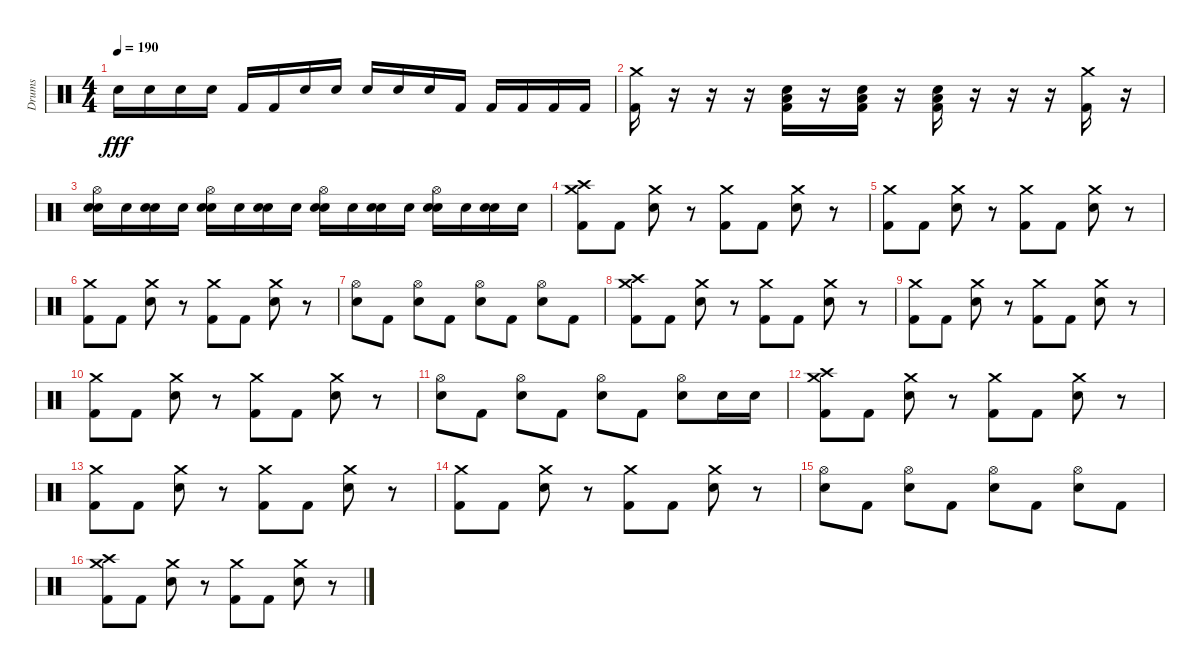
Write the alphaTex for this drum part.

\track ("Drums" "Drums") {instrument percussion}
\staff {score}
\articulation defaults
\ts (4 4)
\tempo 190
\clef neutral
\ks c "Electric Snare (hit)".16{dy fff} "Electric Snare (hit)".16 "Electric Snare (hit)".16 "Electric Snare (hit)".16 "Kick (hit) 2".16 "Kick (hit) 2".16 "Electric Snare (hit)".16 "Electric Snare (hit)".16 "Electric Snare (hit)".16 "Electric Snare (hit)".16 "Electric Snare (hit)".16 "Kick (hit) 2".16 "Kick (hit) 2".16 "Kick (hit) 2".16 "Kick (hit) 2".16 "Kick (hit) 2".16
|
("Crash medium (hit)" "Kick (hit) 2").16 r.16 r.16 r.16 ("Electric Snare (hit)" "Low Floor Tom (hit)" "Kick (hit) 2").16 r.16 ("Electric Snare (hit)" "Low Floor Tom (hit)" "Kick (hit) 2").16 r.16 ("Electric Snare (hit)" "Low Floor Tom (hit)" "Kick (hit) 2").16 r.16 r.16 r.16 ("Crash medium (hit)" "Kick (hit) 2").16 r.16 |
("Hi-Hat (open)" "Snare (hit) 2" "Snare (hit) 2").16 "Snare (hit) 2".16 ("Snare (hit) 2" "Snare (hit) 2").16 "Snare (hit) 2".16 ("Hi-Hat (open)" "Snare (hit) 2" "Snare (hit) 2").16 "Snare (hit) 2".16 ("Snare (hit) 2" "Snare (hit) 2").16 "Snare (hit) 2".16 ("Hi-Hat (open)" "Snare (hit) 2" "Snare (hit) 2").16 "Snare (hit) 2".16 ("Snare (hit) 2" "Snare (hit) 2").16 "Snare (hit) 2".16 ("Hi-Hat (open)" "Snare (hit) 2" "Snare (hit) 2").16 "Snare (hit) 2".16 ("Snare (hit) 2" "Snare (hit) 2").16 "Snare (hit) 2".16 |
("Crash high (hit)" "Crash medium (hit)" "Kick (hit) 2").8 "Kick (hit) 2".8 ("Crash medium (hit)" "Snare (hit) 2").8 r.8 ("Crash medium (hit)" "Kick (hit) 2").8 "Kick (hit) 2".8 ("Crash medium (hit)" "Snare (hit) 2").8 r.8 |
("Crash medium (hit)" "Kick (hit) 2").8 "Kick (hit) 2".8 ("Crash medium (hit)" "Snare (hit) 2").8 r.8 ("Crash medium (hit)" "Kick (hit) 2").8 "Kick (hit) 2".8 ("Crash medium (hit)" "Snare (hit) 2").8 r.8 |
("Crash medium (hit)" "Kick (hit) 2").8 "Kick (hit) 2".8 ("Crash medium (hit)" "Snare (hit) 2").8 r.8 ("Crash medium (hit)" "Kick (hit) 2").8 "Kick (hit) 2".8 ("Crash medium (hit)" "Snare (hit) 2").8 r.8 |
("Hi-Hat (open)" "Snare (hit) 2").8 "Kick (hit) 2".8 ("Hi-Hat (open)" "Snare (hit) 2").8 "Kick (hit) 2".8 ("Hi-Hat (open)" "Snare (hit) 2").8 "Kick (hit) 2".8 ("Hi-Hat (open)" "Snare (hit) 2").8 "Kick (hit) 2".8 |
("Crash high (hit)" "Crash medium (hit)" "Kick (hit) 2").8 "Kick (hit) 2".8 ("Crash medium (hit)" "Snare (hit) 2").8 r.8 ("Crash medium (hit)" "Kick (hit) 2").8 "Kick (hit) 2".8 ("Crash medium (hit)" "Snare (hit) 2").8 r.8 |
("Crash medium (hit)" "Kick (hit) 2").8 "Kick (hit) 2".8 ("Crash medium (hit)" "Snare (hit) 2").8 r.8 ("Crash medium (hit)" "Kick (hit) 2").8 "Kick (hit) 2".8 ("Crash medium (hit)" "Snare (hit) 2").8 r.8 |
("Crash medium (hit)" "Kick (hit) 2").8 "Kick (hit) 2".8 ("Crash medium (hit)" "Snare (hit) 2").8 r.8 ("Crash medium (hit)" "Kick (hit) 2").8 "Kick (hit) 2".8 ("Crash medium (hit)" "Snare (hit) 2").8 r.8 |
("Hi-Hat (open)" "Snare (hit) 2").8 "Kick (hit) 2".8 ("Hi-Hat (open)" "Snare (hit) 2").8 "Kick (hit) 2".8 ("Hi-Hat (open)" "Snare (hit) 2").8 "Kick (hit) 2".8 ("Hi-Hat (open)" "Snare (hit) 2").8 "Snare (hit) 2".16 "Snare (hit) 2".16 |
("Crash high (hit)" "Crash medium (hit)" "Kick (hit) 2").8 "Kick (hit) 2".8 ("Crash medium (hit)" "Snare (hit) 2").8 r.8 ("Crash medium (hit)" "Kick (hit) 2").8 "Kick (hit) 2".8 ("Crash medium (hit)" "Snare (hit) 2").8 r.8 |
("Crash medium (hit)" "Kick (hit) 2").8 "Kick (hit) 2".8 ("Crash medium (hit)" "Snare (hit) 2").8 r.8 ("Crash medium (hit)" "Kick (hit) 2").8 "Kick (hit) 2".8 ("Crash medium (hit)" "Snare (hit) 2").8 r.8 |
("Crash medium (hit)" "Kick (hit) 2").8 "Kick (hit) 2".8 ("Crash medium (hit)" "Snare (hit) 2").8 r.8 ("Crash medium (hit)" "Kick (hit) 2").8 "Kick (hit) 2".8 ("Crash medium (hit)" "Snare (hit) 2").8 r.8 |
("Hi-Hat (open)" "Snare (hit) 2").8 "Kick (hit) 2".8 ("Hi-Hat (open)" "Snare (hit) 2").8 "Kick (hit) 2".8 ("Hi-Hat (open)" "Snare (hit) 2").8 "Kick (hit) 2".8 ("Hi-Hat (open)" "Snare (hit) 2").8 "Kick (hit) 2".8 |
("Crash high (hit)" "Crash medium (hit)" "Kick (hit) 2").8 "Kick (hit) 2".8 ("Crash medium (hit)" "Snare (hit) 2").8 r.8 ("Crash medium (hit)" "Kick (hit) 2").8 "Kick (hit) 2".8 ("Crash medium (hit)" "Snare (hit) 2").8 r.8
